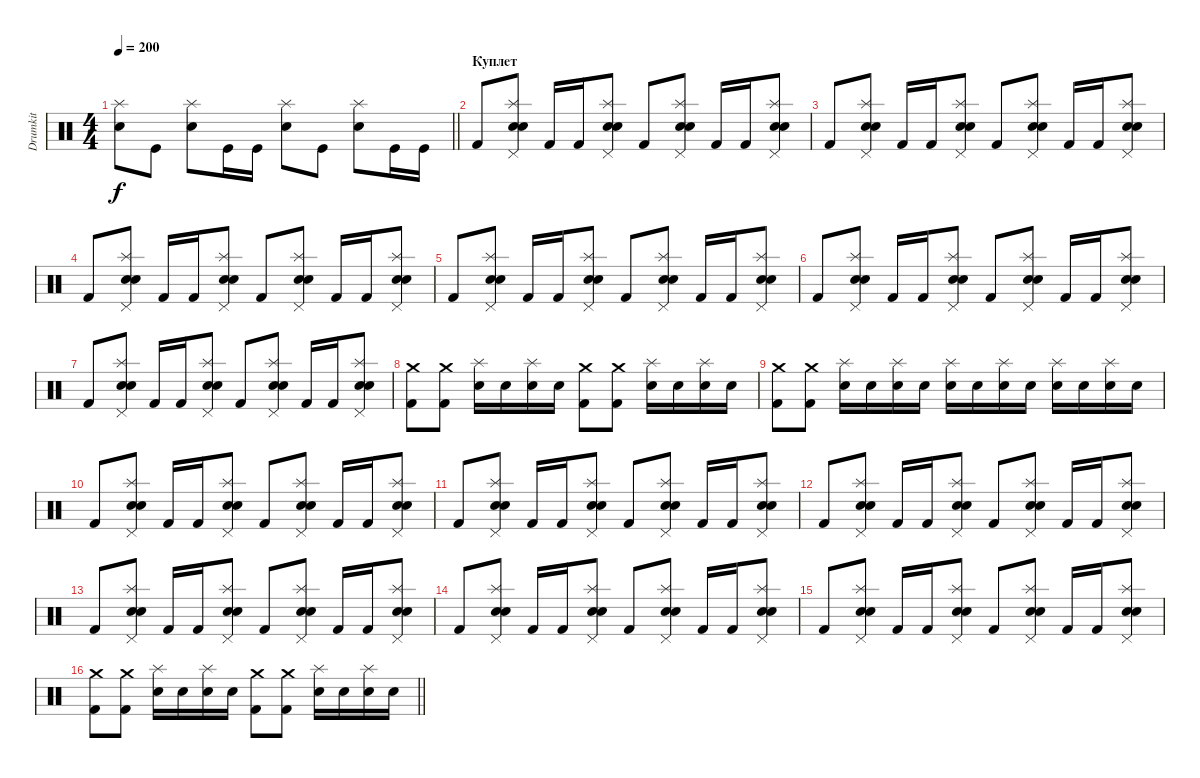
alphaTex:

\track ("Drumkit" "Drumkit") {instrument percussion}
\staff {score}
\articulation defaults
\ts (4 4)
\tempo 200
\clef neutral
\barLineRight lightlight
\ks c
("Snare (hit) 2" "Splash (hit)").8{dy f} "Kick (hit)".8 ("Snare (hit) 2" "Splash (hit)").8 "Kick (hit)".16 "Kick (hit)".16 ("Splash (hit)" "Snare (hit) 2").8 "Kick (hit)".8 ("Snare (hit) 2" "Splash (hit)").8 "Kick (hit)".16 "Kick (hit)".16 |
\section ("" "Куплет")
"Kick (hit) 2".8 ("Splash (hit)" "Pedal Hi-Hat (hit)" "Electric Snare (hit)" "Snare (hit) 2").8 "Kick (hit) 2".16 "Kick (hit) 2".16 ("Splash (hit)" "Pedal Hi-Hat (hit)" "Electric Snare (hit)" "Snare (hit) 2").8 "Kick (hit) 2".8 ("Splash (hit)" "Pedal Hi-Hat (hit)" "Electric Snare (hit)" "Snare (hit) 2").8 "Kick (hit) 2".16 "Kick (hit) 2".16 ("Splash (hit)" "Pedal Hi-Hat (hit)" "Electric Snare (hit)" "Snare (hit) 2").8 |
"Kick (hit) 2".8 ("Splash (hit)" "Pedal Hi-Hat (hit)" "Electric Snare (hit)" "Snare (hit) 2").8 "Kick (hit) 2".16 "Kick (hit) 2".16 ("Splash (hit)" "Pedal Hi-Hat (hit)" "Electric Snare (hit)" "Snare (hit) 2").8 "Kick (hit) 2".8 ("Splash (hit)" "Pedal Hi-Hat (hit)" "Electric Snare (hit)" "Snare (hit) 2").8 "Kick (hit) 2".16 "Kick (hit) 2".16 ("Splash (hit)" "Pedal Hi-Hat (hit)" "Electric Snare (hit)" "Snare (hit) 2").8 |
"Kick (hit) 2".8 ("Splash (hit)" "Pedal Hi-Hat (hit)" "Electric Snare (hit)" "Snare (hit) 2").8 "Kick (hit) 2".16 "Kick (hit) 2".16 ("Splash (hit)" "Pedal Hi-Hat (hit)" "Electric Snare (hit)" "Snare (hit) 2").8 "Kick (hit) 2".8 ("Splash (hit)" "Pedal Hi-Hat (hit)" "Electric Snare (hit)" "Snare (hit) 2").8 "Kick (hit) 2".16 "Kick (hit) 2".16 ("Splash (hit)" "Pedal Hi-Hat (hit)" "Electric Snare (hit)" "Snare (hit) 2").8 |
"Kick (hit) 2".8 ("Splash (hit)" "Pedal Hi-Hat (hit)" "Electric Snare (hit)" "Snare (hit) 2").8 "Kick (hit) 2".16 "Kick (hit) 2".16 ("Splash (hit)" "Pedal Hi-Hat (hit)" "Electric Snare (hit)" "Snare (hit) 2").8 "Kick (hit) 2".8 ("Splash (hit)" "Pedal Hi-Hat (hit)" "Electric Snare (hit)" "Snare (hit) 2").8 "Kick (hit) 2".16 "Kick (hit) 2".16 ("Splash (hit)" "Pedal Hi-Hat (hit)" "Electric Snare (hit)" "Snare (hit) 2").8 |
"Kick (hit) 2".8 ("Splash (hit)" "Pedal Hi-Hat (hit)" "Electric Snare (hit)" "Snare (hit) 2").8 "Kick (hit) 2".16 "Kick (hit) 2".16 ("Splash (hit)" "Pedal Hi-Hat (hit)" "Electric Snare (hit)" "Snare (hit) 2").8 "Kick (hit) 2".8 ("Splash (hit)" "Pedal Hi-Hat (hit)" "Electric Snare (hit)" "Snare (hit) 2").8 "Kick (hit) 2".16 "Kick (hit) 2".16 ("Splash (hit)" "Pedal Hi-Hat (hit)" "Electric Snare (hit)" "Snare (hit) 2").8 |
"Kick (hit) 2".8 ("Splash (hit)" "Pedal Hi-Hat (hit)" "Electric Snare (hit)" "Snare (hit) 2").8 "Kick (hit) 2".16 "Kick (hit) 2".16 ("Splash (hit)" "Pedal Hi-Hat (hit)" "Electric Snare (hit)" "Snare (hit) 2").8 "Kick (hit) 2".8 ("Splash (hit)" "Pedal Hi-Hat (hit)" "Electric Snare (hit)" "Snare (hit) 2").8 "Kick (hit) 2".16 "Kick (hit) 2".16 ("Splash (hit)" "Pedal Hi-Hat (hit)" "Electric Snare (hit)" "Snare (hit) 2").8 |
("Crash medium (hit)" "Kick (hit) 2").8 ("Crash medium (hit)" "Kick (hit) 2").8 ("Splash (hit)" "Electric Snare (hit)").16 "Electric Snare (hit)".16 ("Splash (hit)" "Electric Snare (hit)").16 "Electric Snare (hit)".16 ("Crash medium (hit)" "Kick (hit) 2").8 ("Crash medium (hit)" "Kick (hit) 2").8 ("Splash (hit)" "Electric Snare (hit)").16 "Electric Snare (hit)".16 ("Splash (hit)" "Electric Snare (hit)").16 "Electric Snare (hit)".16 |
("Crash medium (hit)" "Kick (hit) 2").8 ("Crash medium (hit)" "Kick (hit) 2").8 ("Splash (hit)" "Electric Snare (hit)").16 "Electric Snare (hit)".16 ("Splash (hit)" "Electric Snare (hit)").16 "Electric Snare (hit)".16 ("Splash (hit)" "Electric Snare (hit)").16 "Electric Snare (hit)".16 ("Splash (hit)" "Electric Snare (hit)").16 "Electric Snare (hit)".16 ("Splash (hit)" "Electric Snare (hit)").16 "Electric Snare (hit)".16 ("Splash (hit)" "Electric Snare (hit)").16 "Electric Snare (hit)".16 |
"Kick (hit) 2".8 ("Splash (hit)" "Pedal Hi-Hat (hit)" "Electric Snare (hit)" "Snare (hit) 2").8 "Kick (hit) 2".16 "Kick (hit) 2".16 ("Splash (hit)" "Pedal Hi-Hat (hit)" "Electric Snare (hit)" "Snare (hit) 2").8 "Kick (hit) 2".8 ("Splash (hit)" "Pedal Hi-Hat (hit)" "Electric Snare (hit)" "Snare (hit) 2").8 "Kick (hit) 2".16 "Kick (hit) 2".16 ("Splash (hit)" "Pedal Hi-Hat (hit)" "Electric Snare (hit)" "Snare (hit) 2").8 |
"Kick (hit) 2".8 ("Splash (hit)" "Pedal Hi-Hat (hit)" "Electric Snare (hit)" "Snare (hit) 2").8 "Kick (hit) 2".16 "Kick (hit) 2".16 ("Splash (hit)" "Pedal Hi-Hat (hit)" "Electric Snare (hit)" "Snare (hit) 2").8 "Kick (hit) 2".8 ("Splash (hit)" "Pedal Hi-Hat (hit)" "Electric Snare (hit)" "Snare (hit) 2").8 "Kick (hit) 2".16 "Kick (hit) 2".16 ("Splash (hit)" "Pedal Hi-Hat (hit)" "Electric Snare (hit)" "Snare (hit) 2").8 |
"Kick (hit) 2".8 ("Splash (hit)" "Pedal Hi-Hat (hit)" "Electric Snare (hit)" "Snare (hit) 2").8 "Kick (hit) 2".16 "Kick (hit) 2".16 ("Splash (hit)" "Pedal Hi-Hat (hit)" "Electric Snare (hit)" "Snare (hit) 2").8 "Kick (hit) 2".8 ("Splash (hit)" "Pedal Hi-Hat (hit)" "Electric Snare (hit)" "Snare (hit) 2").8 "Kick (hit) 2".16 "Kick (hit) 2".16 ("Splash (hit)" "Pedal Hi-Hat (hit)" "Electric Snare (hit)" "Snare (hit) 2").8 |
"Kick (hit) 2".8 ("Splash (hit)" "Pedal Hi-Hat (hit)" "Electric Snare (hit)" "Snare (hit) 2").8 "Kick (hit) 2".16 "Kick (hit) 2".16 ("Splash (hit)" "Pedal Hi-Hat (hit)" "Electric Snare (hit)" "Snare (hit) 2").8 "Kick (hit) 2".8 ("Splash (hit)" "Pedal Hi-Hat (hit)" "Electric Snare (hit)" "Snare (hit) 2").8 "Kick (hit) 2".16 "Kick (hit) 2".16 ("Splash (hit)" "Pedal Hi-Hat (hit)" "Electric Snare (hit)" "Snare (hit) 2").8 |
"Kick (hit) 2".8 ("Splash (hit)" "Pedal Hi-Hat (hit)" "Electric Snare (hit)" "Snare (hit) 2").8 "Kick (hit) 2".16 "Kick (hit) 2".16 ("Splash (hit)" "Pedal Hi-Hat (hit)" "Electric Snare (hit)" "Snare (hit) 2").8 "Kick (hit) 2".8 ("Splash (hit)" "Pedal Hi-Hat (hit)" "Electric Snare (hit)" "Snare (hit) 2").8 "Kick (hit) 2".16 "Kick (hit) 2".16 ("Splash (hit)" "Pedal Hi-Hat (hit)" "Electric Snare (hit)" "Snare (hit) 2").8 |
"Kick (hit) 2".8 ("Splash (hit)" "Pedal Hi-Hat (hit)" "Electric Snare (hit)" "Snare (hit) 2").8 "Kick (hit) 2".16 "Kick (hit) 2".16 ("Splash (hit)" "Pedal Hi-Hat (hit)" "Electric Snare (hit)" "Snare (hit) 2").8 "Kick (hit) 2".8 ("Splash (hit)" "Pedal Hi-Hat (hit)" "Electric Snare (hit)" "Snare (hit) 2").8 "Kick (hit) 2".16 "Kick (hit) 2".16 ("Splash (hit)" "Pedal Hi-Hat (hit)" "Electric Snare (hit)" "Snare (hit) 2").8 |
\barLineRight lightlight
("Crash medium (hit)" "Kick (hit) 2").8 ("Crash medium (hit)" "Kick (hit) 2").8 ("Splash (hit)" "Electric Snare (hit)").16 "Electric Snare (hit)".16 ("Splash (hit)" "Electric Snare (hit)").16 "Electric Snare (hit)".16 ("Crash medium (hit)" "Kick (hit) 2").8 ("Crash medium (hit)" "Kick (hit) 2").8 ("Splash (hit)" "Electric Snare (hit)").16 "Electric Snare (hit)".16 ("Splash (hit)" "Electric Snare (hit)").16 "Electric Snare (hit)".16
